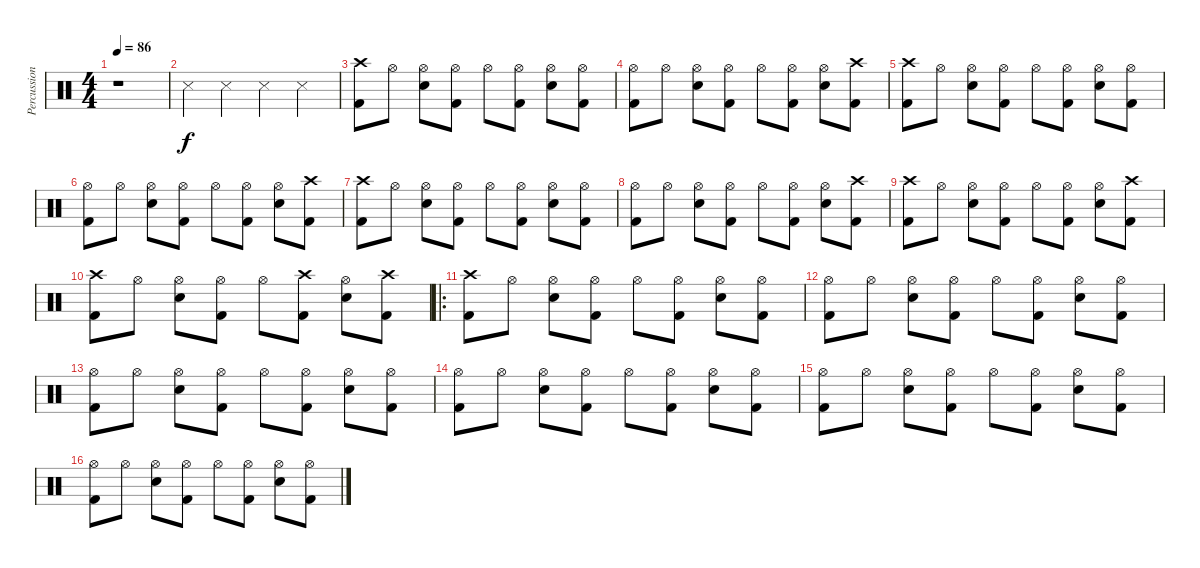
\track ("Percussions" "Percussion") {instrument percussion}
\staff {score}
\articulation defaults
\ts (4 4)
\tempo 86
\clef neutral
\ks c
r.1{dy f} |
"Snare (side stick) 3".4 "Snare (side stick) 3".4 "Snare (side stick) 3".4 "Snare (side stick) 3".4 |
("Crash high (hit)" "Kick (hit) 2").8 "Hi-Hat (open)".8 ("Hi-Hat (open)" "Electric Snare (hit)").8 ("Hi-Hat (open)" "Kick (hit) 2").8 "Hi-Hat (open)".8 ("Hi-Hat (open)" "Kick (hit) 2").8 ("Hi-Hat (open)" "Electric Snare (hit)").8 ("Hi-Hat (open)" "Kick (hit) 2").8 |
("Hi-Hat (open)" "Kick (hit) 2").8 "Hi-Hat (open)".8 ("Hi-Hat (open)" "Electric Snare (hit)").8 ("Hi-Hat (open)" "Kick (hit) 2").8 "Hi-Hat (open)".8 ("Hi-Hat (open)" "Kick (hit) 2").8 ("Hi-Hat (open)" "Electric Snare (hit)").8 ("Crash high (hit)" "Kick (hit) 2").8 |
("Crash high (hit)" "Kick (hit) 2").8 "Hi-Hat (open)".8 ("Hi-Hat (open)" "Electric Snare (hit)").8 ("Hi-Hat (open)" "Kick (hit) 2").8 "Hi-Hat (open)".8 ("Hi-Hat (open)" "Kick (hit) 2").8 ("Hi-Hat (open)" "Electric Snare (hit)").8 ("Hi-Hat (open)" "Kick (hit) 2").8 |
("Hi-Hat (open)" "Kick (hit) 2").8 "Hi-Hat (open)".8 ("Hi-Hat (open)" "Electric Snare (hit)").8 ("Hi-Hat (open)" "Kick (hit) 2").8 "Hi-Hat (open)".8 ("Hi-Hat (open)" "Kick (hit) 2").8 ("Hi-Hat (open)" "Electric Snare (hit)").8 ("Crash high (hit)" "Kick (hit) 2").8 |
("Crash high (hit)" "Kick (hit) 2").8 "Hi-Hat (open)".8 ("Hi-Hat (open)" "Electric Snare (hit)").8 ("Hi-Hat (open)" "Kick (hit) 2").8 "Hi-Hat (open)".8 ("Hi-Hat (open)" "Kick (hit) 2").8 ("Hi-Hat (open)" "Electric Snare (hit)").8 ("Hi-Hat (open)" "Kick (hit) 2").8 |
("Hi-Hat (open)" "Kick (hit) 2").8 "Hi-Hat (open)".8 ("Hi-Hat (open)" "Electric Snare (hit)").8 ("Hi-Hat (open)" "Kick (hit) 2").8 "Hi-Hat (open)".8 ("Hi-Hat (open)" "Kick (hit) 2").8 ("Hi-Hat (open)" "Electric Snare (hit)").8 ("Crash high (hit)" "Kick (hit) 2").8 |
("Crash high (hit)" "Kick (hit) 2").8 "Hi-Hat (open)".8 ("Hi-Hat (open)" "Electric Snare (hit)").8 ("Hi-Hat (open)" "Kick (hit) 2").8 "Hi-Hat (open)".8 ("Hi-Hat (open)" "Kick (hit) 2").8 ("Hi-Hat (open)" "Electric Snare (hit)").8 ("Crash high (hit)" "Kick (hit) 2").8 |
("Crash high (hit)" "Kick (hit) 2").8 "Hi-Hat (open)".8 ("Hi-Hat (open)" "Electric Snare (hit)").8 ("Hi-Hat (open)" "Kick (hit) 2").8 "Hi-Hat (open)".8 ("Crash high (hit)" "Kick (hit) 2").8 ("Hi-Hat (open)" "Electric Snare (hit)").8 ("Crash high (hit)" "Kick (hit) 2").8 |
\ro
("Crash high (hit)" "Kick (hit) 2").8 "Hi-Hat (open)".8 ("Hi-Hat (open)" "Electric Snare (hit)").8 ("Hi-Hat (open)" "Kick (hit) 2").8 "Hi-Hat (open)".8 ("Hi-Hat (open)" "Kick (hit) 2").8 ("Hi-Hat (open)" "Electric Snare (hit)").8 ("Hi-Hat (open)" "Kick (hit) 2").8 |
("Hi-Hat (open)" "Kick (hit) 2").8 "Hi-Hat (open)".8 ("Hi-Hat (open)" "Electric Snare (hit)").8 ("Hi-Hat (open)" "Kick (hit) 2").8 "Hi-Hat (open)".8 ("Hi-Hat (open)" "Kick (hit) 2").8 ("Hi-Hat (open)" "Electric Snare (hit)").8 ("Hi-Hat (open)" "Kick (hit) 2").8 |
("Hi-Hat (open)" "Kick (hit) 2").8 "Hi-Hat (open)".8 ("Hi-Hat (open)" "Electric Snare (hit)").8 ("Hi-Hat (open)" "Kick (hit) 2").8 "Hi-Hat (open)".8 ("Hi-Hat (open)" "Kick (hit) 2").8 ("Hi-Hat (open)" "Electric Snare (hit)").8 ("Hi-Hat (open)" "Kick (hit) 2").8 |
("Hi-Hat (open)" "Kick (hit) 2").8 "Hi-Hat (open)".8 ("Hi-Hat (open)" "Electric Snare (hit)").8 ("Hi-Hat (open)" "Kick (hit) 2").8 "Hi-Hat (open)".8 ("Hi-Hat (open)" "Kick (hit) 2").8 ("Hi-Hat (open)" "Electric Snare (hit)").8 ("Hi-Hat (open)" "Kick (hit) 2").8 |
("Hi-Hat (open)" "Kick (hit) 2").8 "Hi-Hat (open)".8 ("Hi-Hat (open)" "Electric Snare (hit)").8 ("Hi-Hat (open)" "Kick (hit) 2").8 "Hi-Hat (open)".8 ("Hi-Hat (open)" "Kick (hit) 2").8 ("Hi-Hat (open)" "Electric Snare (hit)").8 ("Hi-Hat (open)" "Kick (hit) 2").8 |
("Hi-Hat (open)" "Kick (hit) 2").8 "Hi-Hat (open)".8 ("Hi-Hat (open)" "Electric Snare (hit)").8 ("Hi-Hat (open)" "Kick (hit) 2").8 "Hi-Hat (open)".8 ("Hi-Hat (open)" "Kick (hit) 2").8 ("Hi-Hat (open)" "Electric Snare (hit)").8 ("Hi-Hat (open)" "Kick (hit) 2").8
